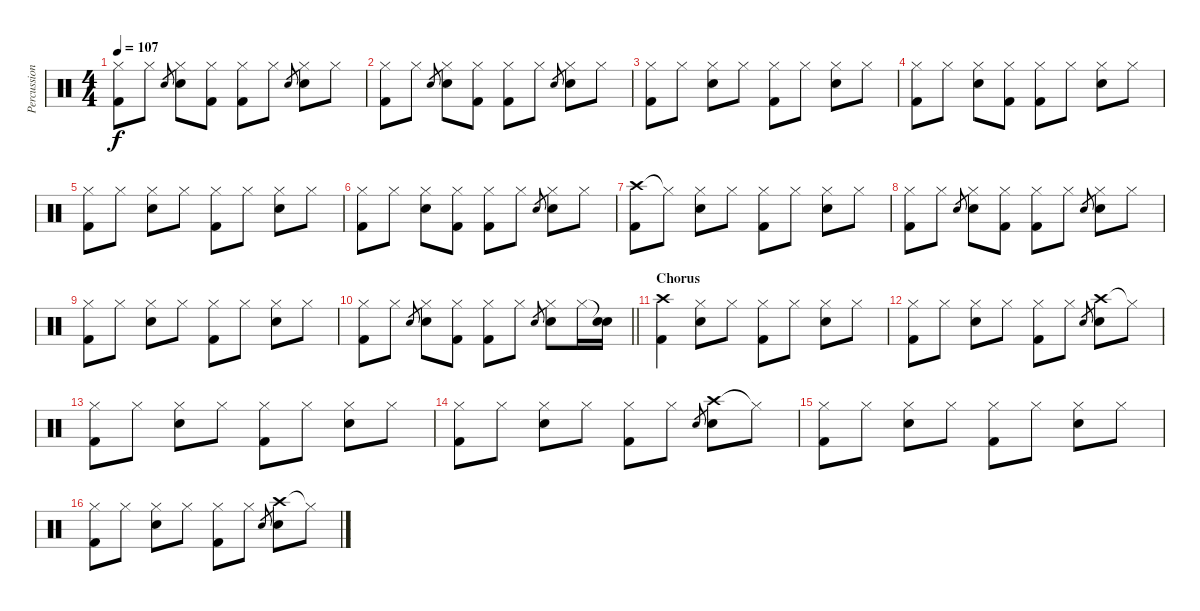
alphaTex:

\track ("Percussion" "Percussion") {instrument percussion}
\staff {score}
\articulation defaults
\ts (4 4)
\tempo 107
\clef neutral
\ks c
("Hi-Hat (closed)" "Kick (hit) 2").8{dy f} "Hi-Hat (closed)".8 "Electric Snare (hit)".8{gr} ("Hi-Hat (closed)" "Electric Snare (hit)").8 ("Hi-Hat (closed)" "Kick (hit) 2").8 ("Hi-Hat (closed)" "Kick (hit) 2").8 "Hi-Hat (closed)".8 "Electric Snare (hit)".8{gr} ("Hi-Hat (closed)" "Electric Snare (hit)").8 "Hi-Hat (closed)".8 |
("Hi-Hat (closed)" "Kick (hit) 2").8 "Hi-Hat (closed)".8 "Electric Snare (hit)".8{gr} ("Hi-Hat (closed)" "Electric Snare (hit)").8 ("Hi-Hat (closed)" "Kick (hit) 2").8 ("Hi-Hat (closed)" "Kick (hit) 2").8 "Hi-Hat (closed)".8 "Electric Snare (hit)".8{gr} ("Hi-Hat (closed)" "Electric Snare (hit)").8 "Hi-Hat (closed)".8 |
("Hi-Hat (closed)" "Kick (hit) 2").8 "Hi-Hat (closed)".8 ("Hi-Hat (closed)" "Electric Snare (hit)").8 "Hi-Hat (closed)".8 ("Hi-Hat (closed)" "Kick (hit) 2").8 "Hi-Hat (closed)".8 ("Hi-Hat (closed)" "Electric Snare (hit)").8 "Hi-Hat (closed)".8 |
("Hi-Hat (closed)" "Kick (hit) 2").8 "Hi-Hat (closed)".8 ("Hi-Hat (closed)" "Electric Snare (hit)").8 ("Hi-Hat (closed)" "Kick (hit) 2").8 ("Hi-Hat (closed)" "Kick (hit) 2").8 "Hi-Hat (closed)".8 ("Hi-Hat (closed)" "Electric Snare (hit)").8 "Hi-Hat (closed)".8 |
("Hi-Hat (closed)" "Kick (hit) 2").8 "Hi-Hat (closed)".8 ("Hi-Hat (closed)" "Electric Snare (hit)").8 "Hi-Hat (closed)".8 ("Hi-Hat (closed)" "Kick (hit) 2").8 "Hi-Hat (closed)".8 ("Hi-Hat (closed)" "Electric Snare (hit)").8 "Hi-Hat (closed)".8 |
("Hi-Hat (closed)" "Kick (hit) 2").8 "Hi-Hat (closed)".8 ("Hi-Hat (closed)" "Electric Snare (hit)").8 ("Hi-Hat (closed)" "Kick (hit) 2").8 ("Hi-Hat (closed)" "Kick (hit) 2").8 "Hi-Hat (closed)".8 "Electric Snare (hit)".8{gr} ("Hi-Hat (closed)" "Electric Snare (hit)").8 "Hi-Hat (closed)".8 |
("Crash high (hit)" "Kick (hit) 2").8 "Hi-Hat (closed)"{t}.8 ("Hi-Hat (closed)" "Electric Snare (hit)").8 "Hi-Hat (closed)".8 ("Hi-Hat (closed)" "Kick (hit) 2").8 "Hi-Hat (closed)".8 ("Hi-Hat (closed)" "Electric Snare (hit)").8 "Hi-Hat (closed)".8 |
("Hi-Hat (closed)" "Kick (hit) 2").8 "Hi-Hat (closed)".8 "Electric Snare (hit)".8{gr} ("Hi-Hat (closed)" "Electric Snare (hit)").8 ("Hi-Hat (closed)" "Kick (hit) 2").8 ("Hi-Hat (closed)" "Kick (hit) 2").8 "Hi-Hat (closed)".8 "Electric Snare (hit)".8{gr} ("Hi-Hat (closed)" "Electric Snare (hit)").8 "Hi-Hat (closed)".8 |
("Hi-Hat (closed)" "Kick (hit) 2").8 "Hi-Hat (closed)".8 ("Hi-Hat (closed)" "Electric Snare (hit)").8 "Hi-Hat (closed)".8 ("Hi-Hat (closed)" "Kick (hit) 2").8 "Hi-Hat (closed)".8 ("Hi-Hat (closed)" "Electric Snare (hit)").8 "Hi-Hat (closed)".8 |
\barLineRight lightlight
("Hi-Hat (closed)" "Kick (hit) 2").8 "Hi-Hat (closed)".8 "Electric Snare (hit)".8{gr} ("Hi-Hat (closed)" "Electric Snare (hit)").8 ("Hi-Hat (closed)" "Kick (hit) 2").8 ("Hi-Hat (closed)" "Kick (hit) 2").8 "Hi-Hat (closed)".8 "Electric Snare (hit)".8{gr} ("Hi-Hat (closed)" "Electric Snare (hit)").8 "Hi-Hat (closed)".16 ("Snare (hit)"{t} "Electric Snare (hit)").16 |
\section ("" "Chorus")
("Crash high (hit)" "Kick (hit) 2").4 ("Hi-Hat (closed)" "Electric Snare (hit)").8 "Hi-Hat (closed)".8 ("Hi-Hat (closed)" "Kick (hit) 2").8 "Hi-Hat (closed)".8 ("Hi-Hat (closed)" "Electric Snare (hit)").8 "Hi-Hat (closed)".8 |
("Hi-Hat (closed)" "Kick (hit) 2").8 "Hi-Hat (closed)".8 ("Hi-Hat (closed)" "Electric Snare (hit)").8 "Hi-Hat (closed)".8 ("Hi-Hat (closed)" "Kick (hit) 2").8 "Hi-Hat (closed)".8 "Electric Snare (hit)".8{gr} ("Crash high (hit)" "Electric Snare (hit)").8 "Hi-Hat (closed)"{t}.8 |
("Hi-Hat (closed)" "Kick (hit) 2").8 "Hi-Hat (closed)".8 ("Hi-Hat (closed)" "Electric Snare (hit)").8 "Hi-Hat (closed)".8 ("Hi-Hat (closed)" "Kick (hit) 2").8 "Hi-Hat (closed)".8 ("Hi-Hat (closed)" "Electric Snare (hit)").8 "Hi-Hat (closed)".8 |
("Hi-Hat (closed)" "Kick (hit) 2").8 "Hi-Hat (closed)".8 ("Hi-Hat (closed)" "Electric Snare (hit)").8 "Hi-Hat (closed)".8 ("Hi-Hat (closed)" "Kick (hit) 2").8 "Hi-Hat (closed)".8 "Electric Snare (hit)".8{gr} ("Crash high (hit)" "Electric Snare (hit)").8 "Hi-Hat (closed)"{t}.8 |
("Hi-Hat (closed)" "Kick (hit) 2").8 "Hi-Hat (closed)".8 ("Hi-Hat (closed)" "Electric Snare (hit)").8 "Hi-Hat (closed)".8 ("Hi-Hat (closed)" "Kick (hit) 2").8 "Hi-Hat (closed)".8 ("Hi-Hat (closed)" "Electric Snare (hit)").8 "Hi-Hat (closed)".8 |
("Hi-Hat (closed)" "Kick (hit) 2").8 "Hi-Hat (closed)".8 ("Hi-Hat (closed)" "Electric Snare (hit)").8 "Hi-Hat (closed)".8 ("Hi-Hat (closed)" "Kick (hit) 2").8 "Hi-Hat (closed)".8 "Electric Snare (hit)".8{gr} ("Crash high (hit)" "Electric Snare (hit)").8 "Hi-Hat (closed)"{t}.8
